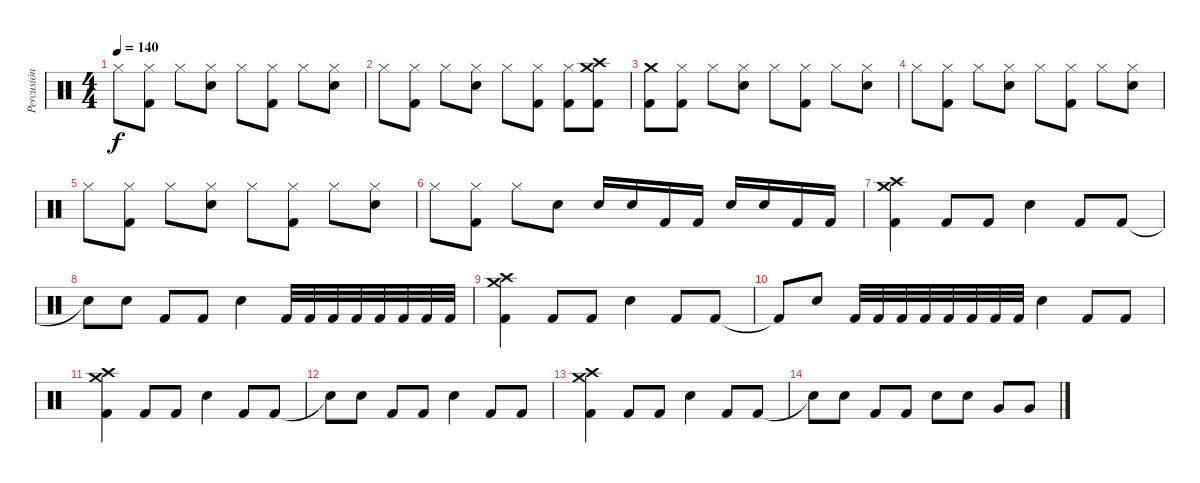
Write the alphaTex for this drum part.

\track ("Percusión" "Percusión") {instrument percussion}
\staff {score}
\articulation defaults
\ts (4 4)
\tempo 140
\clef neutral
\ks c "Hi-Hat (closed)".8{dy f}
("Hi-Hat (closed)" "Kick (hit) 2").8 "Hi-Hat (closed)".8 ("Hi-Hat (closed)" "Snare (hit) 2").8 "Hi-Hat (closed)".8 ("Hi-Hat (closed)" "Kick (hit) 2").8 "Hi-Hat (closed)".8 ("Hi-Hat (closed)" "Snare (hit) 2").8 |
"Hi-Hat (closed)".8 ("Hi-Hat (closed)" "Kick (hit) 2").8 "Hi-Hat (closed)".8 ("Hi-Hat (closed)" "Snare (hit) 2").8 "Hi-Hat (closed)".8 ("Hi-Hat (closed)" "Kick (hit) 2").8 ("Hi-Hat (closed)" "Kick (hit) 2").8 ("Crash medium (hit)" "Crash high (hit)" "Kick (hit) 2").8 |
("Crash medium (hit)" "Kick (hit) 2").8 ("Hi-Hat (closed)" "Kick (hit) 2").8 "Hi-Hat (closed)".8 ("Hi-Hat (closed)" "Snare (hit) 2").8 "Hi-Hat (closed)".8 ("Hi-Hat (closed)" "Kick (hit) 2").8 "Hi-Hat (closed)".8 ("Hi-Hat (closed)" "Snare (hit) 2").8 |
"Hi-Hat (closed)".8 ("Hi-Hat (closed)" "Kick (hit) 2").8 "Hi-Hat (closed)".8 ("Hi-Hat (closed)" "Snare (hit) 2").8 "Hi-Hat (closed)".8 ("Hi-Hat (closed)" "Kick (hit) 2").8 "Hi-Hat (closed)".8 ("Hi-Hat (closed)" "Snare (hit) 2").8 |
"Hi-Hat (closed)".8 ("Hi-Hat (closed)" "Kick (hit) 2").8 "Hi-Hat (closed)".8 ("Hi-Hat (closed)" "Snare (hit) 2").8 "Hi-Hat (closed)".8 ("Hi-Hat (closed)" "Kick (hit) 2").8 "Hi-Hat (closed)".8 ("Hi-Hat (closed)" "Snare (hit) 2").8 |
"Hi-Hat (closed)".8 ("Hi-Hat (closed)" "Kick (hit) 2").8 "Hi-Hat (closed)".8 "Snare (hit) 2".8 "Snare (hit) 2".16 "Snare (hit) 2".16 "Kick (hit) 2".16 "Kick (hit) 2".16 "Snare (hit) 2".16 "Snare (hit) 2".16 "Kick (hit) 2".16 "Kick (hit) 2".16 |
("Crash medium (hit)" "Crash high (hit)" "Kick (hit) 2").4 "Kick (hit) 2".8 "Kick (hit) 2".8 "Snare (hit) 2".4 "Kick (hit) 2".8 "Kick (hit) 2".8 |
"Snare (hit)"{t}.8 "Snare (hit) 2".8 "Kick (hit) 2".8 "Kick (hit) 2".8 "Snare (hit) 2".4 "Kick (hit) 2".32 "Kick (hit) 2".32 "Kick (hit) 2".32 "Kick (hit) 2".32 "Kick (hit) 2".32 "Kick (hit) 2".32 "Kick (hit) 2".32 "Kick (hit) 2".32 |
("Crash medium (hit)" "Crash high (hit)" "Kick (hit) 2").4 "Kick (hit) 2".8 "Kick (hit) 2".8 "Snare (hit) 2".4 "Kick (hit) 2".8 "Kick (hit) 2".8 |
"Kick (hit) 2"{t}.8 "Snare (hit) 2".8 "Kick (hit) 2".32 "Kick (hit) 2".32 "Kick (hit) 2".32 "Kick (hit) 2".32 "Kick (hit) 2".32 "Kick (hit) 2".32 "Kick (hit) 2".32 "Kick (hit) 2".32 "Snare (hit) 2".4 "Kick (hit) 2".8 "Kick (hit) 2".8 |
("Crash medium (hit)" "Crash high (hit)" "Kick (hit) 2").4 "Kick (hit) 2".8 "Kick (hit) 2".8 "Snare (hit) 2".4 "Kick (hit) 2".8 "Kick (hit) 2".8 |
"Snare (hit)"{t}.8 "Snare (hit) 2".8 "Kick (hit) 2".8 "Kick (hit) 2".8 "Snare (hit) 2".4 "Kick (hit) 2".8 "Kick (hit) 2".8 |
("Crash medium (hit)" "Crash high (hit)" "Kick (hit) 2").4 "Kick (hit) 2".8 "Kick (hit) 2".8 "Snare (hit) 2".4 "Kick (hit) 2".8 "Kick (hit) 2".8 |
"Snare (hit)"{t}.8 "Snare (hit) 2".8 "Kick (hit) 2".8 "Kick (hit) 2".8 "Snare (hit) 2".8 "Snare (hit) 2".8 "Very Low Tom (hit)".8 "Very Low Tom (hit)".8
